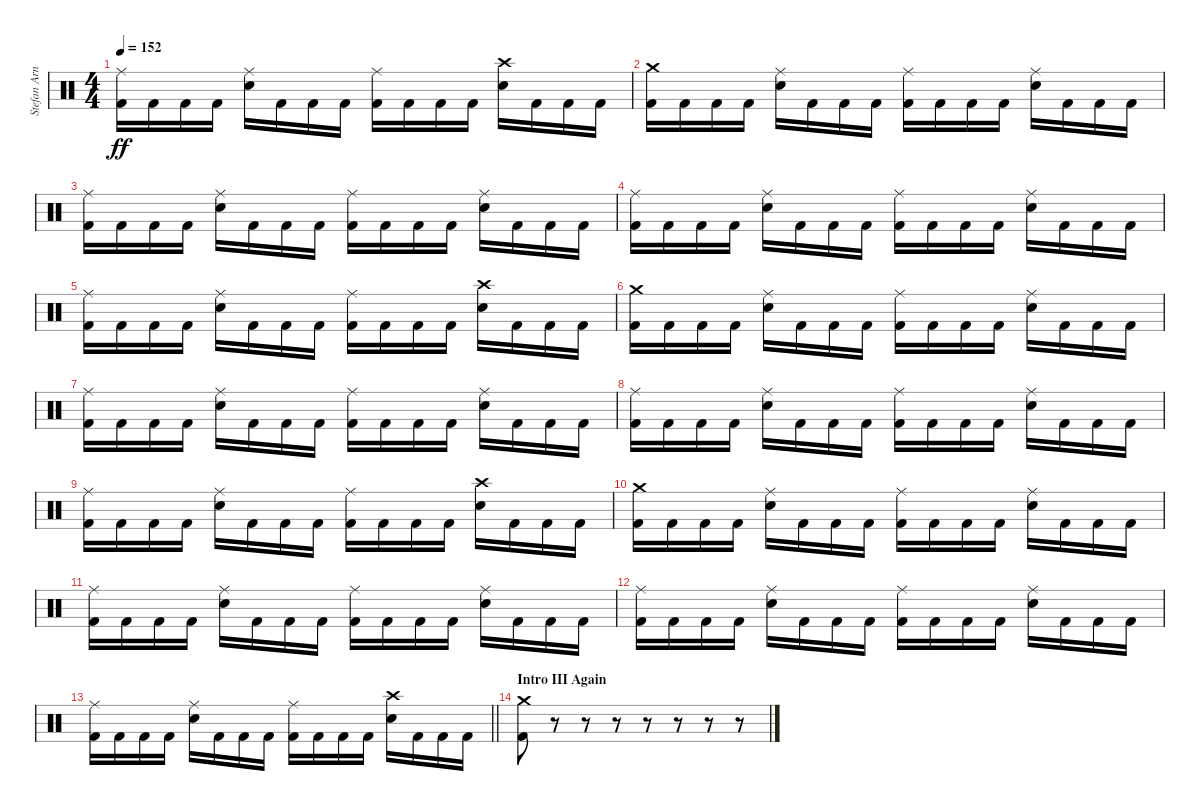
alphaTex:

\track ("Stefan Arnold" "Stefan Arn") {instrument percussion}
\staff {score}
\articulation defaults
\ts (4 4)
\tempo 152
\clef neutral
\ks c
("Ride (middle)" "Kick (hit) 2").16{dy ff} "Kick (hit) 2".16 "Kick (hit) 2".16 "Kick (hit) 2".16 ("Ride (middle)" "Electric Snare (hit)").16 "Kick (hit) 2".16 "Kick (hit) 2".16 "Kick (hit) 2".16 ("Ride (middle)" "Kick (hit) 2").16 "Kick (hit) 2".16 "Kick (hit) 2".16 "Kick (hit) 2".16 ("Crash high (hit)" "Electric Snare (hit)").16 "Kick (hit) 2".16 "Kick (hit) 2".16 "Kick (hit) 2".16 |
("Crash medium (hit)" "Kick (hit) 2").16 "Kick (hit) 2".16 "Kick (hit) 2".16 "Kick (hit) 2".16 ("Ride (middle)" "Electric Snare (hit)").16 "Kick (hit) 2".16 "Kick (hit) 2".16 "Kick (hit) 2".16 ("Ride (middle)" "Kick (hit) 2").16 "Kick (hit) 2".16 "Kick (hit) 2".16 "Kick (hit) 2".16 ("Ride (middle)" "Electric Snare (hit)").16 "Kick (hit) 2".16 "Kick (hit) 2".16 "Kick (hit) 2".16 |
("Ride (middle)" "Kick (hit) 2").16 "Kick (hit) 2".16 "Kick (hit) 2".16 "Kick (hit) 2".16 ("Ride (middle)" "Electric Snare (hit)").16 "Kick (hit) 2".16 "Kick (hit) 2".16 "Kick (hit) 2".16 ("Ride (middle)" "Kick (hit) 2").16 "Kick (hit) 2".16 "Kick (hit) 2".16 "Kick (hit) 2".16 ("Ride (middle)" "Electric Snare (hit)").16 "Kick (hit) 2".16 "Kick (hit) 2".16 "Kick (hit) 2".16 |
("Ride (middle)" "Kick (hit) 2").16 "Kick (hit) 2".16 "Kick (hit) 2".16 "Kick (hit) 2".16 ("Ride (middle)" "Electric Snare (hit)").16 "Kick (hit) 2".16 "Kick (hit) 2".16 "Kick (hit) 2".16 ("Ride (middle)" "Kick (hit) 2").16 "Kick (hit) 2".16 "Kick (hit) 2".16 "Kick (hit) 2".16 ("Ride (middle)" "Electric Snare (hit)").16 "Kick (hit) 2".16 "Kick (hit) 2".16 "Kick (hit) 2".16 |
("Ride (middle)" "Kick (hit) 2").16 "Kick (hit) 2".16 "Kick (hit) 2".16 "Kick (hit) 2".16 ("Ride (middle)" "Electric Snare (hit)").16 "Kick (hit) 2".16 "Kick (hit) 2".16 "Kick (hit) 2".16 ("Ride (middle)" "Kick (hit) 2").16 "Kick (hit) 2".16 "Kick (hit) 2".16 "Kick (hit) 2".16 ("Crash high (hit)" "Electric Snare (hit)").16 "Kick (hit) 2".16 "Kick (hit) 2".16 "Kick (hit) 2".16 |
("Crash medium (hit)" "Kick (hit) 2").16 "Kick (hit) 2".16 "Kick (hit) 2".16 "Kick (hit) 2".16 ("Ride (middle)" "Electric Snare (hit)").16 "Kick (hit) 2".16 "Kick (hit) 2".16 "Kick (hit) 2".16 ("Ride (middle)" "Kick (hit) 2").16 "Kick (hit) 2".16 "Kick (hit) 2".16 "Kick (hit) 2".16 ("Ride (middle)" "Electric Snare (hit)").16 "Kick (hit) 2".16 "Kick (hit) 2".16 "Kick (hit) 2".16 |
("Ride (middle)" "Kick (hit) 2").16 "Kick (hit) 2".16 "Kick (hit) 2".16 "Kick (hit) 2".16 ("Ride (middle)" "Electric Snare (hit)").16 "Kick (hit) 2".16 "Kick (hit) 2".16 "Kick (hit) 2".16 ("Ride (middle)" "Kick (hit) 2").16 "Kick (hit) 2".16 "Kick (hit) 2".16 "Kick (hit) 2".16 ("Ride (middle)" "Electric Snare (hit)").16 "Kick (hit) 2".16 "Kick (hit) 2".16 "Kick (hit) 2".16 |
("Ride (middle)" "Kick (hit) 2").16 "Kick (hit) 2".16 "Kick (hit) 2".16 "Kick (hit) 2".16 ("Ride (middle)" "Electric Snare (hit)").16 "Kick (hit) 2".16 "Kick (hit) 2".16 "Kick (hit) 2".16 ("Ride (middle)" "Kick (hit) 2").16 "Kick (hit) 2".16 "Kick (hit) 2".16 "Kick (hit) 2".16 ("Ride (middle)" "Electric Snare (hit)").16 "Kick (hit) 2".16 "Kick (hit) 2".16 "Kick (hit) 2".16 |
("Ride (middle)" "Kick (hit) 2").16 "Kick (hit) 2".16 "Kick (hit) 2".16 "Kick (hit) 2".16 ("Ride (middle)" "Electric Snare (hit)").16 "Kick (hit) 2".16 "Kick (hit) 2".16 "Kick (hit) 2".16 ("Ride (middle)" "Kick (hit) 2").16 "Kick (hit) 2".16 "Kick (hit) 2".16 "Kick (hit) 2".16 ("Crash high (hit)" "Electric Snare (hit)").16 "Kick (hit) 2".16 "Kick (hit) 2".16 "Kick (hit) 2".16 |
("Crash medium (hit)" "Kick (hit) 2").16 "Kick (hit) 2".16 "Kick (hit) 2".16 "Kick (hit) 2".16 ("Ride (middle)" "Electric Snare (hit)").16 "Kick (hit) 2".16 "Kick (hit) 2".16 "Kick (hit) 2".16 ("Ride (middle)" "Kick (hit) 2").16 "Kick (hit) 2".16 "Kick (hit) 2".16 "Kick (hit) 2".16 ("Ride (middle)" "Electric Snare (hit)").16 "Kick (hit) 2".16 "Kick (hit) 2".16 "Kick (hit) 2".16 |
("Ride (middle)" "Kick (hit) 2").16 "Kick (hit) 2".16 "Kick (hit) 2".16 "Kick (hit) 2".16 ("Ride (middle)" "Electric Snare (hit)").16 "Kick (hit) 2".16 "Kick (hit) 2".16 "Kick (hit) 2".16 ("Ride (middle)" "Kick (hit) 2").16 "Kick (hit) 2".16 "Kick (hit) 2".16 "Kick (hit) 2".16 ("Ride (middle)" "Electric Snare (hit)").16 "Kick (hit) 2".16 "Kick (hit) 2".16 "Kick (hit) 2".16 |
("Ride (middle)" "Kick (hit) 2").16 "Kick (hit) 2".16 "Kick (hit) 2".16 "Kick (hit) 2".16 ("Ride (middle)" "Electric Snare (hit)").16 "Kick (hit) 2".16 "Kick (hit) 2".16 "Kick (hit) 2".16 ("Ride (middle)" "Kick (hit) 2").16 "Kick (hit) 2".16 "Kick (hit) 2".16 "Kick (hit) 2".16 ("Ride (middle)" "Electric Snare (hit)").16 "Kick (hit) 2".16 "Kick (hit) 2".16 "Kick (hit) 2".16 |
\barLineRight lightlight
("Ride (middle)" "Kick (hit) 2").16 "Kick (hit) 2".16 "Kick (hit) 2".16 "Kick (hit) 2".16 ("Ride (middle)" "Electric Snare (hit)").16 "Kick (hit) 2".16 "Kick (hit) 2".16 "Kick (hit) 2".16 ("Ride (middle)" "Kick (hit) 2").16 "Kick (hit) 2".16 "Kick (hit) 2".16 "Kick (hit) 2".16 ("Crash high (hit)" "Electric Snare (hit)").16 "Kick (hit) 2".16 "Kick (hit) 2".16 "Kick (hit) 2".16 |
\section ("" "Intro III Again")
("Crash medium (hit)" "Kick (hit) 2").8 r.8 r.8 r.8 r.8 r.8 r.8 r.8
